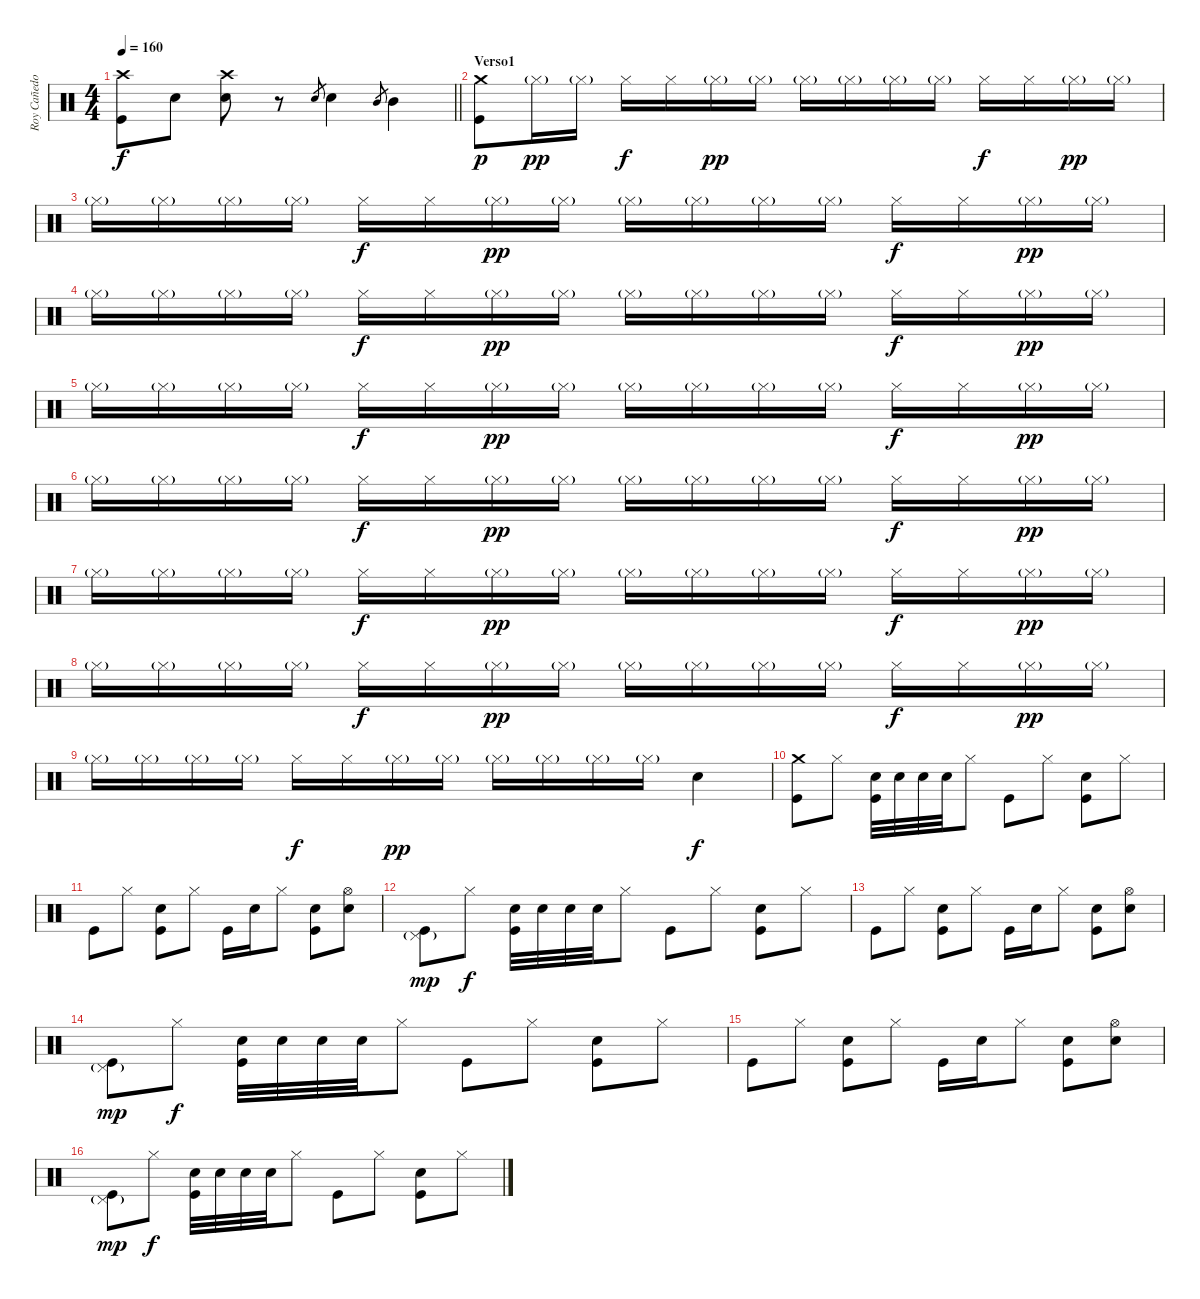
\track ("Roy Cañedo" "Roy Cañedo") {instrument percussion}
\staff {score}
\articulation defaults
\ts (4 4)
\tempo 160
\clef neutral
\barLineRight lightlight
\ks c
("Crash high (hit)" "Kick (hit)").8{dy f} "Snare (hit) 2".8 ("Crash high (hit)" "Snare (hit) 2").8 r.8 "Snare (hit) 2".8{gr} "Snare (hit) 2".4 "Mid Tom (hit)".8{gr} "Mid Tom (hit)".4 |
\section ("" "Verso1")
("Crash medium (hit)" "Kick (hit)").8{dy p} "Hi-Hat (closed)"{g}.16{dy pp} "Hi-Hat (closed)"{g}.16 "Hi-Hat (closed)".16{dy f} "Hi-Hat (closed)".16 "Hi-Hat (closed)"{g}.16{dy pp} "Hi-Hat (closed)"{g}.16 "Hi-Hat (closed)"{g}.16 "Hi-Hat (closed)"{g}.16 "Hi-Hat (closed)"{g}.16 "Hi-Hat (closed)"{g}.16 "Hi-Hat (closed)".16{dy f} "Hi-Hat (closed)".16 "Hi-Hat (closed)"{g}.16{dy pp} "Hi-Hat (closed)"{g}.16 |
"Hi-Hat (closed)"{g}.16 "Hi-Hat (closed)"{g}.16 "Hi-Hat (closed)"{g}.16 "Hi-Hat (closed)"{g}.16 "Hi-Hat (closed)".16{dy f} "Hi-Hat (closed)".16 "Hi-Hat (closed)"{g}.16{dy pp} "Hi-Hat (closed)"{g}.16 "Hi-Hat (closed)"{g}.16 "Hi-Hat (closed)"{g}.16 "Hi-Hat (closed)"{g}.16 "Hi-Hat (closed)"{g}.16 "Hi-Hat (closed)".16{dy f} "Hi-Hat (closed)".16 "Hi-Hat (closed)"{g}.16{dy pp} "Hi-Hat (closed)"{g}.16 |
"Hi-Hat (closed)"{g}.16 "Hi-Hat (closed)"{g}.16 "Hi-Hat (closed)"{g}.16 "Hi-Hat (closed)"{g}.16 "Hi-Hat (closed)".16{dy f} "Hi-Hat (closed)".16 "Hi-Hat (closed)"{g}.16{dy pp} "Hi-Hat (closed)"{g}.16 "Hi-Hat (closed)"{g}.16 "Hi-Hat (closed)"{g}.16 "Hi-Hat (closed)"{g}.16 "Hi-Hat (closed)"{g}.16 "Hi-Hat (closed)".16{dy f} "Hi-Hat (closed)".16 "Hi-Hat (closed)"{g}.16{dy pp} "Hi-Hat (closed)"{g}.16 |
"Hi-Hat (closed)"{g}.16 "Hi-Hat (closed)"{g}.16 "Hi-Hat (closed)"{g}.16 "Hi-Hat (closed)"{g}.16 "Hi-Hat (closed)".16{dy f} "Hi-Hat (closed)".16 "Hi-Hat (closed)"{g}.16{dy pp} "Hi-Hat (closed)"{g}.16 "Hi-Hat (closed)"{g}.16 "Hi-Hat (closed)"{g}.16 "Hi-Hat (closed)"{g}.16 "Hi-Hat (closed)"{g}.16 "Hi-Hat (closed)".16{dy f} "Hi-Hat (closed)".16 "Hi-Hat (closed)"{g}.16{dy pp} "Hi-Hat (closed)"{g}.16 |
"Hi-Hat (closed)"{g}.16 "Hi-Hat (closed)"{g}.16 "Hi-Hat (closed)"{g}.16 "Hi-Hat (closed)"{g}.16 "Hi-Hat (closed)".16{dy f} "Hi-Hat (closed)".16 "Hi-Hat (closed)"{g}.16{dy pp} "Hi-Hat (closed)"{g}.16 "Hi-Hat (closed)"{g}.16 "Hi-Hat (closed)"{g}.16 "Hi-Hat (closed)"{g}.16 "Hi-Hat (closed)"{g}.16 "Hi-Hat (closed)".16{dy f} "Hi-Hat (closed)".16 "Hi-Hat (closed)"{g}.16{dy pp} "Hi-Hat (closed)"{g}.16 |
"Hi-Hat (closed)"{g}.16 "Hi-Hat (closed)"{g}.16 "Hi-Hat (closed)"{g}.16 "Hi-Hat (closed)"{g}.16 "Hi-Hat (closed)".16{dy f} "Hi-Hat (closed)".16 "Hi-Hat (closed)"{g}.16{dy pp} "Hi-Hat (closed)"{g}.16 "Hi-Hat (closed)"{g}.16 "Hi-Hat (closed)"{g}.16 "Hi-Hat (closed)"{g}.16 "Hi-Hat (closed)"{g}.16 "Hi-Hat (closed)".16{dy f} "Hi-Hat (closed)".16 "Hi-Hat (closed)"{g}.16{dy pp} "Hi-Hat (closed)"{g}.16 |
"Hi-Hat (closed)"{g}.16 "Hi-Hat (closed)"{g}.16 "Hi-Hat (closed)"{g}.16 "Hi-Hat (closed)"{g}.16 "Hi-Hat (closed)".16{dy f} "Hi-Hat (closed)".16 "Hi-Hat (closed)"{g}.16{dy pp} "Hi-Hat (closed)"{g}.16 "Hi-Hat (closed)"{g}.16 "Hi-Hat (closed)"{g}.16 "Hi-Hat (closed)"{g}.16 "Hi-Hat (closed)"{g}.16 "Hi-Hat (closed)".16{dy f} "Hi-Hat (closed)".16 "Hi-Hat (closed)"{g}.16{dy pp} "Hi-Hat (closed)"{g}.16 |
"Hi-Hat (closed)"{g}.16 "Hi-Hat (closed)"{g}.16 "Hi-Hat (closed)"{g}.16 "Hi-Hat (closed)"{g}.16 "Hi-Hat (closed)".16{dy f} "Hi-Hat (closed)".16 "Hi-Hat (closed)"{g}.16{dy pp} "Hi-Hat (closed)"{g}.16 "Hi-Hat (closed)"{g}.16 "Hi-Hat (closed)"{g}.16 "Hi-Hat (closed)"{g}.16 "Hi-Hat (closed)"{g}.16 "Snare (hit) 2".4{dy f} |
("Crash medium (hit)" "Kick (hit)").8 "Hi-Hat (closed)".8 ("Snare (hit) 2" "Kick (hit)").32 "Snare (hit) 2".32 "Snare (hit) 2".32 "Snare (hit) 2".32 "Hi-Hat (closed)".8 "Kick (hit)".8 "Hi-Hat (closed)".8 ("Snare (hit) 2" "Kick (hit)").8 "Hi-Hat (closed)".8 |
"Kick (hit)".8 "Hi-Hat (closed)".8 ("Snare (hit) 2" "Kick (hit)").8 "Hi-Hat (closed)".8 "Kick (hit)".16 "Snare (hit) 2".16 "Hi-Hat (closed)".8 ("Snare (hit) 2" "Kick (hit)").8 ("Hi-Hat (open)" "Snare (hit) 2").8 |
("Pedal Hi-Hat (hit)"{g} "Kick (hit)").8{dy mp} "Hi-Hat (closed)".8{dy f} ("Snare (hit) 2" "Kick (hit)").32 "Snare (hit) 2".32 "Snare (hit) 2".32 "Snare (hit) 2".32 "Hi-Hat (closed)".8 "Kick (hit)".8 "Hi-Hat (closed)".8 ("Snare (hit) 2" "Kick (hit)").8 "Hi-Hat (closed)".8 |
"Kick (hit)".8 "Hi-Hat (closed)".8 ("Snare (hit) 2" "Kick (hit)").8 "Hi-Hat (closed)".8 "Kick (hit)".16 "Snare (hit) 2".16 "Hi-Hat (closed)".8 ("Snare (hit) 2" "Kick (hit)").8 ("Hi-Hat (open)" "Snare (hit) 2").8 |
("Pedal Hi-Hat (hit)"{g} "Kick (hit)").8{dy mp} "Hi-Hat (closed)".8{dy f} ("Snare (hit) 2" "Kick (hit)").32 "Snare (hit) 2".32 "Snare (hit) 2".32 "Snare (hit) 2".32 "Hi-Hat (closed)".8 "Kick (hit)".8 "Hi-Hat (closed)".8 ("Snare (hit) 2" "Kick (hit)").8 "Hi-Hat (closed)".8 |
"Kick (hit)".8 "Hi-Hat (closed)".8 ("Snare (hit) 2" "Kick (hit)").8 "Hi-Hat (closed)".8 "Kick (hit)".16 "Snare (hit) 2".16 "Hi-Hat (closed)".8 ("Snare (hit) 2" "Kick (hit)").8 ("Hi-Hat (open)" "Snare (hit) 2").8 |
("Pedal Hi-Hat (hit)"{g} "Kick (hit)").8{dy mp} "Hi-Hat (closed)".8{dy f} ("Snare (hit) 2" "Kick (hit)").32 "Snare (hit) 2".32 "Snare (hit) 2".32 "Snare (hit) 2".32 "Hi-Hat (closed)".8 "Kick (hit)".8 "Hi-Hat (closed)".8 ("Snare (hit) 2" "Kick (hit)").8 "Hi-Hat (closed)".8
